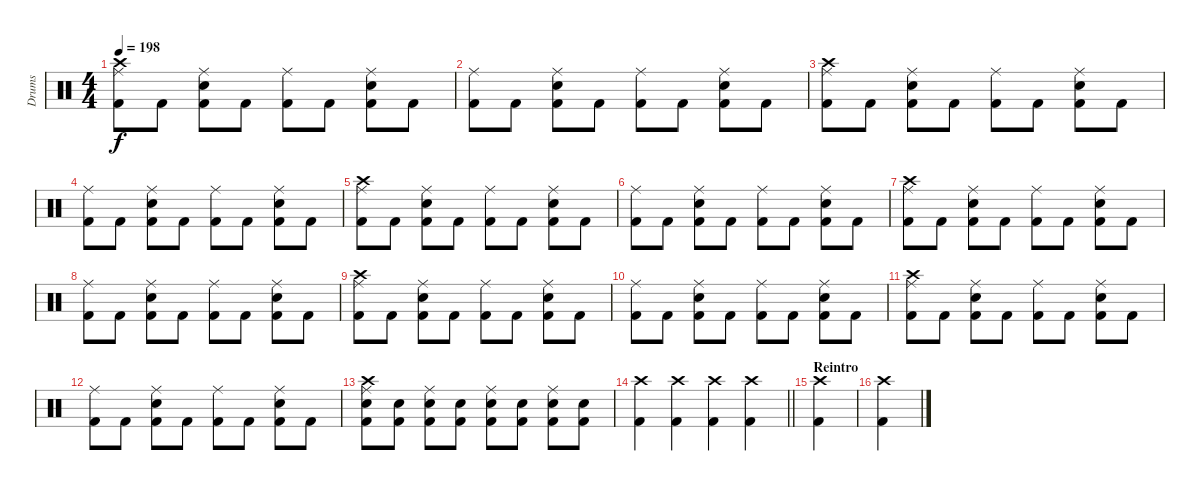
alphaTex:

\track ("Drums" "Drums") {instrument percussion}
\staff {score}
\articulation defaults
\ts (4 4)
\tempo 198
\clef neutral
\ks c
("Crash high (hit)" "Ride (middle)" "Kick (hit) 2").8{dy f} "Kick (hit) 2".8 ("Ride (middle)" "Snare (hit) 2" "Kick (hit) 2").8 "Kick (hit) 2".8 ("Ride (middle)" "Kick (hit) 2").8 "Kick (hit) 2".8 ("Ride (middle)" "Snare (hit) 2" "Kick (hit) 2").8 "Kick (hit) 2".8 |
("Ride (middle)" "Kick (hit) 2").8 "Kick (hit) 2".8 ("Ride (middle)" "Snare (hit) 2" "Kick (hit) 2").8 "Kick (hit) 2".8 ("Ride (middle)" "Kick (hit) 2").8 "Kick (hit) 2".8 ("Ride (middle)" "Snare (hit) 2" "Kick (hit) 2").8 "Kick (hit) 2".8 |
("Crash high (hit)" "Ride (middle)" "Kick (hit) 2").8 "Kick (hit) 2".8 ("Ride (middle)" "Snare (hit) 2" "Kick (hit) 2").8 "Kick (hit) 2".8 ("Ride (middle)" "Kick (hit) 2").8 "Kick (hit) 2".8 ("Ride (middle)" "Snare (hit) 2" "Kick (hit) 2").8 "Kick (hit) 2".8 |
("Ride (middle)" "Kick (hit) 2").8 "Kick (hit) 2".8 ("Ride (middle)" "Snare (hit) 2" "Kick (hit) 2").8 "Kick (hit) 2".8 ("Ride (middle)" "Kick (hit) 2").8 "Kick (hit) 2".8 ("Ride (middle)" "Snare (hit) 2" "Kick (hit) 2").8 "Kick (hit) 2".8 |
("Crash high (hit)" "Ride (middle)" "Kick (hit) 2").8 "Kick (hit) 2".8 ("Ride (middle)" "Snare (hit) 2" "Kick (hit) 2").8 "Kick (hit) 2".8 ("Ride (middle)" "Kick (hit) 2").8 "Kick (hit) 2".8 ("Ride (middle)" "Snare (hit) 2" "Kick (hit) 2").8 "Kick (hit) 2".8 |
("Ride (middle)" "Kick (hit) 2").8 "Kick (hit) 2".8 ("Ride (middle)" "Snare (hit) 2" "Kick (hit) 2").8 "Kick (hit) 2".8 ("Ride (middle)" "Kick (hit) 2").8 "Kick (hit) 2".8 ("Ride (middle)" "Snare (hit) 2" "Kick (hit) 2").8 "Kick (hit) 2".8 |
("Crash high (hit)" "Ride (middle)" "Kick (hit) 2").8 "Kick (hit) 2".8 ("Ride (middle)" "Snare (hit) 2" "Kick (hit) 2").8 "Kick (hit) 2".8 ("Ride (middle)" "Kick (hit) 2").8 "Kick (hit) 2".8 ("Ride (middle)" "Snare (hit) 2" "Kick (hit) 2").8 "Kick (hit) 2".8 |
("Ride (middle)" "Kick (hit) 2").8 "Kick (hit) 2".8 ("Ride (middle)" "Snare (hit) 2" "Kick (hit) 2").8 "Kick (hit) 2".8 ("Ride (middle)" "Kick (hit) 2").8 "Kick (hit) 2".8 ("Ride (middle)" "Snare (hit) 2" "Kick (hit) 2").8 "Kick (hit) 2".8 |
("Crash high (hit)" "Ride (middle)" "Kick (hit) 2").8 "Kick (hit) 2".8 ("Ride (middle)" "Snare (hit) 2" "Kick (hit) 2").8 "Kick (hit) 2".8 ("Ride (middle)" "Kick (hit) 2").8 "Kick (hit) 2".8 ("Ride (middle)" "Snare (hit) 2" "Kick (hit) 2").8 "Kick (hit) 2".8 |
("Ride (middle)" "Kick (hit) 2").8 "Kick (hit) 2".8 ("Ride (middle)" "Snare (hit) 2" "Kick (hit) 2").8 "Kick (hit) 2".8 ("Ride (middle)" "Kick (hit) 2").8 "Kick (hit) 2".8 ("Ride (middle)" "Snare (hit) 2" "Kick (hit) 2").8 "Kick (hit) 2".8 |
("Crash high (hit)" "Ride (middle)" "Kick (hit) 2").8 "Kick (hit) 2".8 ("Ride (middle)" "Snare (hit) 2" "Kick (hit) 2").8 "Kick (hit) 2".8 ("Ride (middle)" "Kick (hit) 2").8 "Kick (hit) 2".8 ("Ride (middle)" "Snare (hit) 2" "Kick (hit) 2").8 "Kick (hit) 2".8 |
("Ride (middle)" "Kick (hit) 2").8 "Kick (hit) 2".8 ("Ride (middle)" "Snare (hit) 2" "Kick (hit) 2").8 "Kick (hit) 2".8 ("Ride (middle)" "Kick (hit) 2").8 "Kick (hit) 2".8 ("Ride (middle)" "Snare (hit) 2" "Kick (hit) 2").8 "Kick (hit) 2".8 |
("Crash high (hit)" "Ride (middle)" "Snare (hit) 2" "Kick (hit) 2").8 ("Snare (hit) 2" "Kick (hit) 2").8 ("Ride (middle)" "Snare (hit) 2" "Kick (hit) 2").8 ("Snare (hit) 2" "Kick (hit) 2").8 ("Ride (middle)" "Snare (hit) 2" "Kick (hit) 2").8 ("Snare (hit) 2" "Kick (hit) 2").8 ("Ride (middle)" "Snare (hit) 2" "Kick (hit) 2").8 ("Snare (hit) 2" "Kick (hit) 2").8 |
\barLineRight lightlight
("Crash high (hit)" "Kick (hit) 2").4 ("Crash high (hit)" "Kick (hit) 2").4 ("Crash high (hit)" "Kick (hit) 2").4 ("Crash high (hit)" "Kick (hit) 2").4 |
\section ("" "Reintro")
("Crash high (hit)" "Kick (hit) 2").4 |
("Crash high (hit)" "Kick (hit) 2").4
